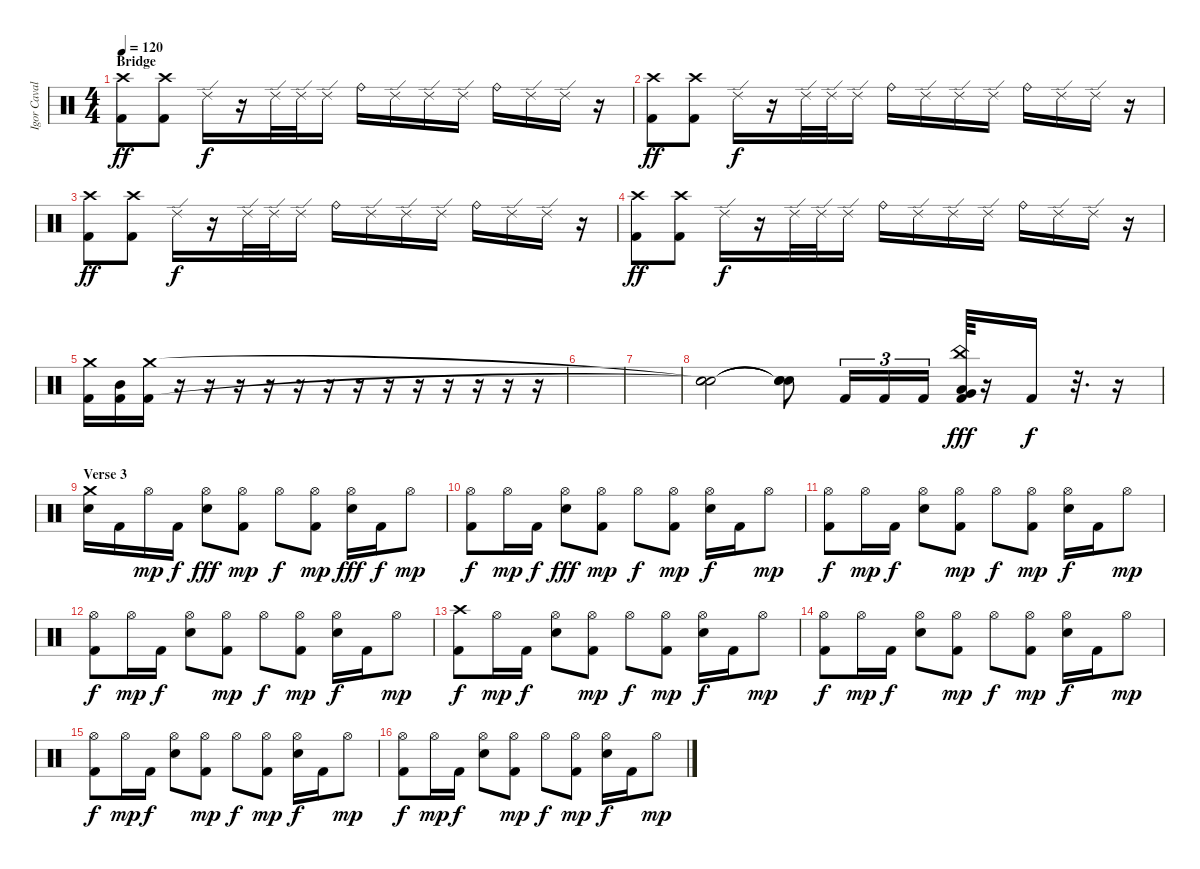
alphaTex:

\track ("Igor Cavalera" "Igor Caval") {instrument percussion}
\staff {score}
\articulation defaults
\ts (4 4)
\section ("" "Bridge")
\tempo 120
\clef neutral
\ks c
("Crash high (hit)" "Kick (hit) 2").8{dy ff} ("Crash high (hit)" "Kick (hit) 2").8 "Ride (edge) 2".16{dy f} r.16 "Ride (edge) 2".32 "Ride (edge) 2".32 "Ride (edge) 2".16 "Ride (bell)".16 "Ride (edge) 2".16 "Ride (edge) 2".16 "Ride (edge) 2".16 "Ride (bell)".16 "Ride (edge) 2".16 "Ride (edge) 2".16 r.16 |
("Crash high (hit)" "Kick (hit) 2").8{dy ff} ("Crash high (hit)" "Kick (hit) 2").8 "Ride (edge) 2".16{dy f} r.16 "Ride (edge) 2".32 "Ride (edge) 2".32 "Ride (edge) 2".16 "Ride (bell)".16 "Ride (edge) 2".16 "Ride (edge) 2".16 "Ride (edge) 2".16 "Ride (bell)".16 "Ride (edge) 2".16 "Ride (edge) 2".16 r.16 |
("Crash high (hit)" "Kick (hit) 2").8{dy ff} ("Crash high (hit)" "Kick (hit) 2").8 "Ride (edge) 2".16{dy f} r.16 "Ride (edge) 2".32 "Ride (edge) 2".32 "Ride (edge) 2".16 "Ride (bell)".16 "Ride (edge) 2".16 "Ride (edge) 2".16 "Ride (edge) 2".16 "Ride (bell)".16 "Ride (edge) 2".16 "Ride (edge) 2".16 r.16 |
("Crash high (hit)" "Kick (hit) 2").8{dy ff} ("Crash high (hit)" "Kick (hit) 2").8 "Ride (edge) 2".16{dy f} r.16 "Ride (edge) 2".32 "Ride (edge) 2".32 "Ride (edge) 2".16 "Ride (bell)".16 "Ride (edge) 2".16 "Ride (edge) 2".16 "Ride (edge) 2".16 "Ride (bell)".16 "Ride (edge) 2".16 "Ride (edge) 2".16 r.16 |
("Crash medium (hit)" "Kick (hit) 2").16 ("Mid Tom (hit)" "Kick (hit) 2").16 ("Crash medium (hit)" "Kick (hit) 2").16 r.16 r.16 r.16 r.16 r.16 r.16 r.16 r.16 r.16 r.16 r.16 r.16 r.16 |
|
|
("Snare (hit)"{t} "Snare (hit)"{t} "Snare (hit)").2 ("Snare (hit)"{t} "Snare (hit)"{t} "Snare (hit)"{t}).8 "Kick (hit) 2".16{tu (3 2)} "Kick (hit) 2".16{tu (3 2)} "Kick (hit) 2".16{tu (3 2)} ("China (hit)" "Low Tom (hit)" "Very Low Tom (hit)" "Kick (hit) 2").64{dy fff} r.16 "Kick (hit) 2".16{dy f} r.32{d} r.16 |
\section ("" "Verse 3")
("Crash medium (hit)" "Electric Snare (hit)").16 "Kick (hit) 2".16 "Hi-Hat (open)".16{dy mp} "Kick (hit) 2".16{dy f} ("Hi-Hat (open)" "Electric Snare (hit)").8{dy fff} ("Hi-Hat (open)" "Kick (hit) 2").8{dy mp} "Hi-Hat (open)".8{dy f} ("Hi-Hat (open)" "Kick (hit) 2").8{dy mp} ("Hi-Hat (open)" "Electric Snare (hit)").16{dy fff} "Kick (hit) 2".16{dy f} "Hi-Hat (open)".8{dy mp} |
("Hi-Hat (open)" "Kick (hit) 2").8{dy f} "Hi-Hat (open)".16{dy mp} "Kick (hit) 2".16{dy f} ("Hi-Hat (open)" "Electric Snare (hit)").8{dy fff} ("Hi-Hat (open)" "Kick (hit) 2").8{dy mp} "Hi-Hat (open)".8{dy f} ("Hi-Hat (open)" "Kick (hit) 2").8{dy mp} ("Hi-Hat (open)" "Electric Snare (hit)").16{dy f} "Kick (hit) 2".16 "Hi-Hat (open)".8{dy mp} |
("Hi-Hat (open)" "Kick (hit) 2").8{dy f} "Hi-Hat (open)".16{dy mp} "Kick (hit) 2".16{dy f} ("Hi-Hat (open)" "Electric Snare (hit)").8 ("Hi-Hat (open)" "Kick (hit) 2").8{dy mp} "Hi-Hat (open)".8{dy f} ("Hi-Hat (open)" "Kick (hit) 2").8{dy mp} ("Hi-Hat (open)" "Electric Snare (hit)").16{dy f} "Kick (hit) 2".16 "Hi-Hat (open)".8{dy mp} |
("Hi-Hat (open)" "Kick (hit) 2").8{dy f} "Hi-Hat (open)".16{dy mp} "Kick (hit) 2".16{dy f} ("Hi-Hat (open)" "Electric Snare (hit)").8 ("Hi-Hat (open)" "Kick (hit) 2").8{dy mp} "Hi-Hat (open)".8{dy f} ("Hi-Hat (open)" "Kick (hit) 2").8{dy mp} ("Hi-Hat (open)" "Electric Snare (hit)").16{dy f} "Kick (hit) 2".16 "Hi-Hat (open)".8{dy mp} |
("Crash high (hit)" "Kick (hit) 2").8{dy f} "Hi-Hat (open)".16{dy mp} "Kick (hit) 2".16{dy f} ("Hi-Hat (open)" "Electric Snare (hit)").8 ("Hi-Hat (open)" "Kick (hit) 2").8{dy mp} "Hi-Hat (open)".8{dy f} ("Hi-Hat (open)" "Kick (hit) 2").8{dy mp} ("Hi-Hat (open)" "Electric Snare (hit)").16{dy f} "Kick (hit) 2".16 "Hi-Hat (open)".8{dy mp} |
("Hi-Hat (open)" "Kick (hit) 2").8{dy f} "Hi-Hat (open)".16{dy mp} "Kick (hit) 2".16{dy f} ("Hi-Hat (open)" "Electric Snare (hit)").8 ("Hi-Hat (open)" "Kick (hit) 2").8{dy mp} "Hi-Hat (open)".8{dy f} ("Hi-Hat (open)" "Kick (hit) 2").8{dy mp} ("Hi-Hat (open)" "Electric Snare (hit)").16{dy f} "Kick (hit) 2".16 "Hi-Hat (open)".8{dy mp} |
("Hi-Hat (open)" "Kick (hit) 2").8{dy f} "Hi-Hat (open)".16{dy mp} "Kick (hit) 2".16{dy f} ("Hi-Hat (open)" "Electric Snare (hit)").8 ("Hi-Hat (open)" "Kick (hit) 2").8{dy mp} "Hi-Hat (open)".8{dy f} ("Hi-Hat (open)" "Kick (hit) 2").8{dy mp} ("Hi-Hat (open)" "Electric Snare (hit)").16{dy f} "Kick (hit) 2".16 "Hi-Hat (open)".8{dy mp} |
("Hi-Hat (open)" "Kick (hit) 2").8{dy f} "Hi-Hat (open)".16{dy mp} "Kick (hit) 2".16{dy f} ("Hi-Hat (open)" "Electric Snare (hit)").8 ("Hi-Hat (open)" "Kick (hit) 2").8{dy mp} "Hi-Hat (open)".8{dy f} ("Hi-Hat (open)" "Kick (hit) 2").8{dy mp} ("Hi-Hat (open)" "Electric Snare (hit)").16{dy f} "Kick (hit) 2".16 "Hi-Hat (open)".8{dy mp}
